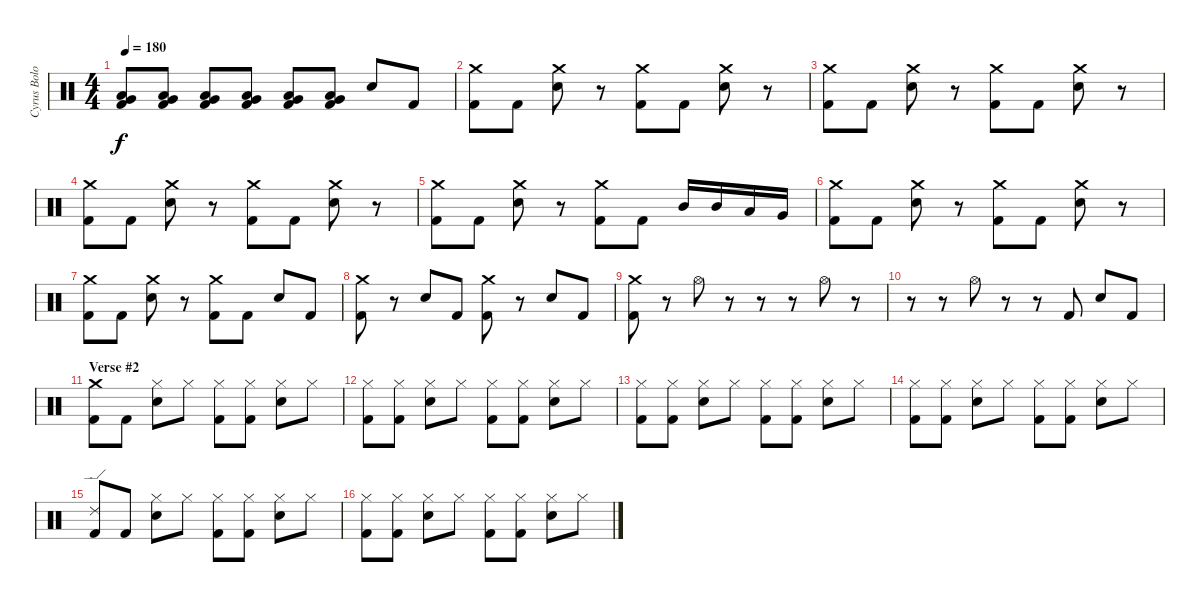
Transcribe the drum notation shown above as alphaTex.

\track ("Cyrus Bolooki - Drums" "Cyrus Bolo") {instrument percussion}
\staff {score}
\articulation defaults
\ts (4 4)
\tempo 180
\clef neutral
\ks c
("Low Tom (hit)" "Very Low Tom (hit)" "Kick (hit) 2").8{dy f} ("Low Tom (hit)" "Very Low Tom (hit)" "Kick (hit) 2").8 ("Low Tom (hit)" "Very Low Tom (hit)" "Kick (hit) 2").8 ("Low Tom (hit)" "Very Low Tom (hit)" "Kick (hit) 2").8 ("Low Tom (hit)" "Very Low Tom (hit)" "Kick (hit) 2").8 ("Low Tom (hit)" "Very Low Tom (hit)" "Kick (hit) 2").8 "Electric Snare (hit)".8 "Kick (hit) 2".8 |
("Crash medium (hit)" "Kick (hit) 2").8 "Kick (hit) 2".8 ("Crash medium (hit)" "Electric Snare (hit)").8 r.8 ("Crash medium (hit)" "Kick (hit) 2").8 "Kick (hit) 2".8 ("Crash medium (hit)" "Electric Snare (hit)").8 r.8 |
("Crash medium (hit)" "Kick (hit) 2").8 "Kick (hit) 2".8 ("Crash medium (hit)" "Electric Snare (hit)").8 r.8 ("Crash medium (hit)" "Kick (hit) 2").8 "Kick (hit) 2".8 ("Crash medium (hit)" "Electric Snare (hit)").8 r.8 |
("Crash medium (hit)" "Kick (hit) 2").8 "Kick (hit) 2".8 ("Crash medium (hit)" "Electric Snare (hit)").8 r.8 ("Crash medium (hit)" "Kick (hit) 2").8 "Kick (hit) 2".8 ("Crash medium (hit)" "Electric Snare (hit)").8 r.8 |
("Crash medium (hit)" "Kick (hit) 2").8 "Kick (hit) 2".8 ("Crash medium (hit)" "Electric Snare (hit)").8 r.8 ("Crash medium (hit)" "Kick (hit) 2").8 "Kick (hit) 2".8 "Mid Tom (hit)".16 "Mid Tom (hit)".16 "Low Tom (hit)".16 "Very Low Tom (hit)".16 |
("Crash medium (hit)" "Kick (hit) 2").8 "Kick (hit) 2".8 ("Crash medium (hit)" "Electric Snare (hit)").8 r.8 ("Crash medium (hit)" "Kick (hit) 2").8 "Kick (hit) 2".8 ("Crash medium (hit)" "Electric Snare (hit)").8 r.8 |
("Crash medium (hit)" "Kick (hit) 2").8 "Kick (hit) 2".8 ("Crash medium (hit)" "Electric Snare (hit)").8 r.8 ("Crash medium (hit)" "Kick (hit) 2").8 "Kick (hit) 2".8 "Electric Snare (hit)".8 "Kick (hit) 2".8 |
("Crash medium (hit)" "Kick (hit) 2").8 r.8 "Electric Snare (hit)".8 "Kick (hit) 2".8 ("Crash medium (hit)" "Kick (hit) 2").8 r.8 "Electric Snare (hit)".8 "Kick (hit) 2".8 |
("Crash medium (hit)" "Kick (hit) 2").8 r.8 "Hi-Hat (open)".8 r.8 r.8 r.8 "Hi-Hat (open)".8 r.8 |
r.8 r.8 "Hi-Hat (open)".8 r.8 r.8 "Kick (hit) 2".8 "Electric Snare (hit)".8 "Kick (hit) 2".8 |
\section ("" "Verse #2")
("Crash medium (hit)" "Kick (hit) 2").8 "Kick (hit) 2".8 ("Hi-Hat (closed)" "Electric Snare (hit)").8 "Hi-Hat (closed)".8 ("Hi-Hat (closed)" "Kick (hit) 2").8 ("Hi-Hat (closed)" "Kick (hit) 2").8 ("Hi-Hat (closed)" "Electric Snare (hit)").8 "Hi-Hat (closed)".8 |
("Hi-Hat (closed)" "Kick (hit) 2").8 ("Hi-Hat (closed)" "Kick (hit) 2").8 ("Hi-Hat (closed)" "Electric Snare (hit)").8 "Hi-Hat (closed)".8 ("Hi-Hat (closed)" "Kick (hit) 2").8 ("Hi-Hat (closed)" "Kick (hit) 2").8 ("Hi-Hat (closed)" "Electric Snare (hit)").8 "Hi-Hat (closed)".8 |
("Hi-Hat (closed)" "Kick (hit) 2").8 ("Hi-Hat (closed)" "Kick (hit) 2").8 ("Hi-Hat (closed)" "Electric Snare (hit)").8 "Hi-Hat (closed)".8 ("Hi-Hat (closed)" "Kick (hit) 2").8 ("Hi-Hat (closed)" "Kick (hit) 2").8 ("Hi-Hat (closed)" "Electric Snare (hit)").8 "Hi-Hat (closed)".8 |
("Hi-Hat (closed)" "Kick (hit) 2").8 ("Hi-Hat (closed)" "Kick (hit) 2").8 ("Hi-Hat (closed)" "Electric Snare (hit)").8 "Hi-Hat (closed)".8 ("Hi-Hat (closed)" "Kick (hit) 2").8 ("Hi-Hat (closed)" "Kick (hit) 2").8 ("Hi-Hat (closed)" "Electric Snare (hit)").8 "Hi-Hat (closed)".8 |
("Ride (edge) 2" "Kick (hit) 2").8 "Kick (hit) 2".8 ("Hi-Hat (closed)" "Electric Snare (hit)").8 "Hi-Hat (closed)".8 ("Hi-Hat (closed)" "Kick (hit) 2").8 ("Hi-Hat (closed)" "Kick (hit) 2").8 ("Hi-Hat (closed)" "Electric Snare (hit)").8 "Hi-Hat (closed)".8 |
("Hi-Hat (closed)" "Kick (hit) 2").8 ("Hi-Hat (closed)" "Kick (hit) 2").8 ("Hi-Hat (closed)" "Electric Snare (hit)").8 "Hi-Hat (closed)".8 ("Hi-Hat (closed)" "Kick (hit) 2").8 ("Hi-Hat (closed)" "Kick (hit) 2").8 ("Hi-Hat (closed)" "Electric Snare (hit)").8 "Hi-Hat (closed)".8
